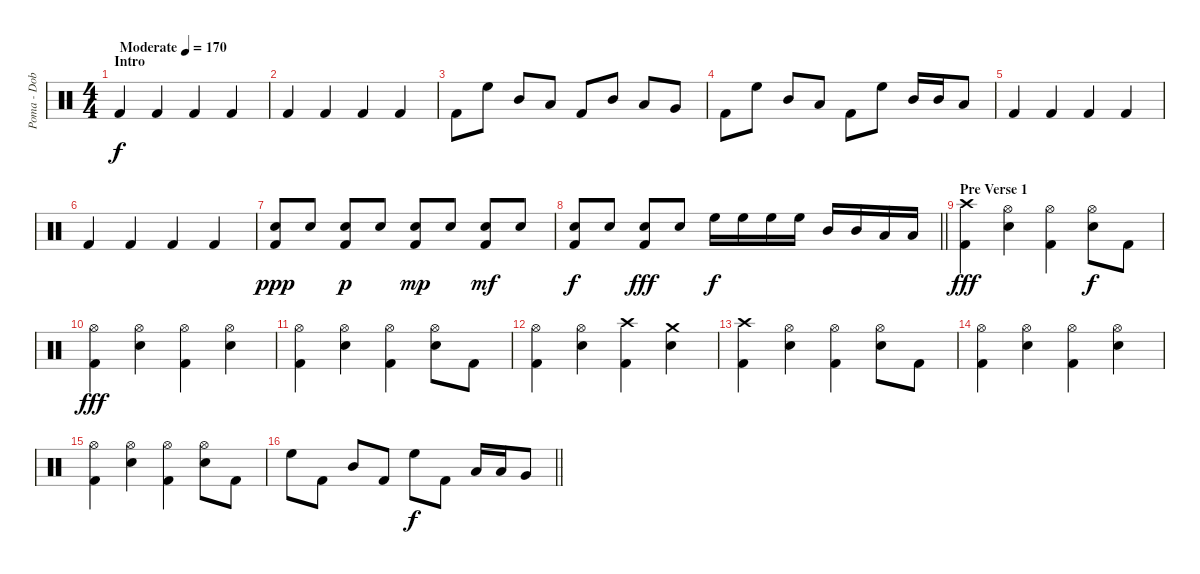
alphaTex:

\track ("Poma - Dob" "Poma - Dob") {instrument percussion}
\staff {score}
\articulation defaults
\ts (4 4)
\section ("" "Intro")
\tempo (170 "Moderate")
\clef neutral
\ks c "Kick (hit) 2".4{dy f} "Kick (hit) 2".4 "Kick (hit) 2".4 "Kick (hit) 2".4
|
"Kick (hit) 2".4 "Kick (hit) 2".4 "Kick (hit) 2".4 "Kick (hit) 2".4 |
"Kick (hit) 2".8 "High Floor Tom (hit)".8 "Mid Tom (hit)".8 "Low Tom (hit)".8 "Kick (hit) 2".8 "Mid Tom (hit)".8 "Low Tom (hit)".8 "Very Low Tom (hit)".8 |
"Kick (hit) 2".8 "High Floor Tom (hit)".8 "Mid Tom (hit)".8 "Low Tom (hit)".8 "Kick (hit) 2".8 "High Floor Tom (hit)".8 "Mid Tom (hit)".16 "Mid Tom (hit)".16 "Low Tom (hit)".8 |
"Kick (hit) 2".4 "Kick (hit) 2".4 "Kick (hit) 2".4 "Kick (hit) 2".4 |
"Kick (hit) 2".4 "Kick (hit) 2".4 "Kick (hit) 2".4 "Kick (hit) 2".4 |
("Electric Snare (hit)" "Kick (hit) 2").8{dy ppp} "Electric Snare (hit)".8 ("Electric Snare (hit)" "Kick (hit) 2").8{dy p} "Electric Snare (hit)".8 ("Electric Snare (hit)" "Kick (hit) 2").8{dy mp} "Electric Snare (hit)".8 ("Electric Snare (hit)" "Kick (hit) 2").8{dy mf} "Electric Snare (hit)".8 |
\barLineRight lightlight
("Electric Snare (hit)" "Kick (hit) 2").8{dy f} "Electric Snare (hit)".8 ("Electric Snare (hit)" "Kick (hit) 2").8{dy fff} "Electric Snare (hit)".8 "High Floor Tom (hit)".16{dy f} "High Floor Tom (hit)".16 "High Floor Tom (hit)".16 "High Floor Tom (hit)".16 "Mid Tom (hit)".16 "Mid Tom (hit)".16 "Low Tom (hit)".16 "Low Tom (hit)".16 |
\section ("" "Pre Verse 1")
("Crash high (hit)" "Kick (hit) 2").4{dy fff} ("Hi-Hat (open)" "Electric Snare (hit)").4 ("Hi-Hat (open)" "Kick (hit) 2").4 ("Hi-Hat (open)" "Electric Snare (hit)").8{dy f} "Kick (hit) 2".8 |
("Hi-Hat (open)" "Kick (hit) 2").4{dy fff} ("Hi-Hat (open)" "Electric Snare (hit)").4 ("Hi-Hat (open)" "Kick (hit) 2").4 ("Hi-Hat (open)" "Electric Snare (hit)").4 |
("Hi-Hat (open)" "Kick (hit) 2").4 ("Hi-Hat (open)" "Electric Snare (hit)").4 ("Hi-Hat (open)" "Kick (hit) 2").4 ("Hi-Hat (open)" "Electric Snare (hit)").8 "Kick (hit) 2".8 |
("Hi-Hat (open)" "Kick (hit) 2").4 ("Hi-Hat (open)" "Electric Snare (hit)").4 ("Crash high (hit)" "Kick (hit) 2").4 ("Crash medium (hit)" "Electric Snare (hit)").4 |
("Crash high (hit)" "Kick (hit) 2").4 ("Hi-Hat (open)" "Electric Snare (hit)").4 ("Hi-Hat (open)" "Kick (hit) 2").4 ("Hi-Hat (open)" "Electric Snare (hit)").8 "Kick (hit) 2".8 |
("Hi-Hat (open)" "Kick (hit) 2").4 ("Hi-Hat (open)" "Electric Snare (hit)").4 ("Hi-Hat (open)" "Kick (hit) 2").4 ("Hi-Hat (open)" "Electric Snare (hit)").4 |
("Hi-Hat (open)" "Kick (hit) 2").4 ("Hi-Hat (open)" "Electric Snare (hit)").4 ("Hi-Hat (open)" "Kick (hit) 2").4 ("Hi-Hat (open)" "Electric Snare (hit)").8 "Kick (hit) 2".8 |
\barLineRight lightlight "High Floor Tom (hit)".8 "Kick (hit) 2".8 "Mid Tom (hit)".8 "Kick (hit) 2".8 "High Floor Tom (hit)".8{dy f} "Kick (hit) 2".8 "Low Tom (hit)".16 "Low Tom (hit)".16 "Very Low Tom (hit)".8
